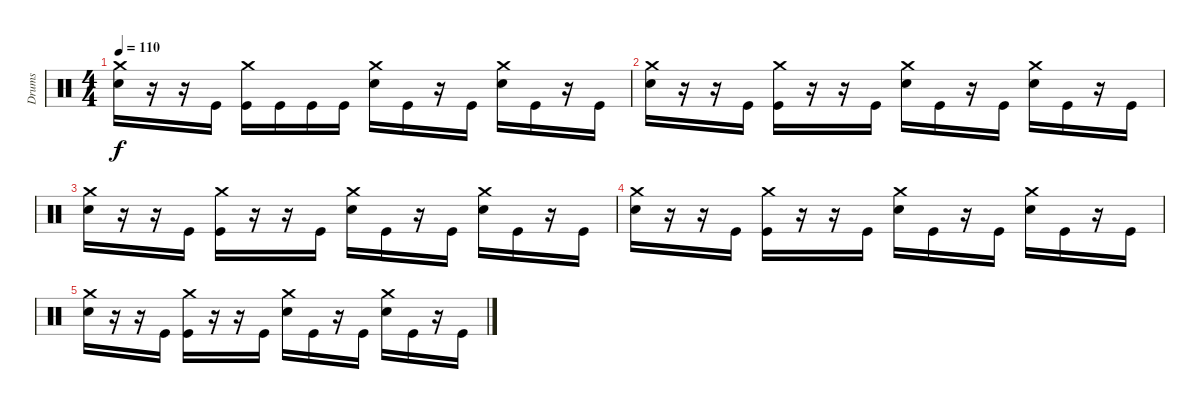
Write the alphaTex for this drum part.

\track ("Drums" "Drums") {instrument percussion}
\staff {score}
\articulation defaults
\ts (4 4)
\tempo 110
\clef neutral
\ks c
("Crash medium (hit)" "Electric Snare (hit)").16{dy f} r.16 r.16 "Kick (hit)".16 ("Crash medium (hit)" "Kick (hit)").16 "Kick (hit)".16 "Kick (hit)".16 "Kick (hit)".16 ("Crash medium (hit)" "Electric Snare (hit)").16 "Kick (hit)".16 r.16 "Kick (hit)".16 ("Crash medium (hit)" "Electric Snare (hit)").16 "Kick (hit)".16 r.16 "Kick (hit)".16 |
("Crash medium (hit)" "Electric Snare (hit)").16 r.16 r.16 "Kick (hit)".16 ("Crash medium (hit)" "Kick (hit)").16 r.16 r.16 "Kick (hit)".16 ("Crash medium (hit)" "Electric Snare (hit)").16 "Kick (hit)".16 r.16 "Kick (hit)".16 ("Crash medium (hit)" "Electric Snare (hit)").16 "Kick (hit)".16 r.16 "Kick (hit)".16 |
("Crash medium (hit)" "Electric Snare (hit)").16{volume 0} r.16 r.16 "Kick (hit)".16 ("Crash medium (hit)" "Kick (hit)").16 r.16 r.16 "Kick (hit)".16 ("Crash medium (hit)" "Electric Snare (hit)").16 "Kick (hit)".16 r.16 "Kick (hit)".16 ("Crash medium (hit)" "Electric Snare (hit)").16 "Kick (hit)".16 r.16 "Kick (hit)".16 |
("Crash medium (hit)" "Electric Snare (hit)").16 r.16 r.16 "Kick (hit)".16 ("Crash medium (hit)" "Kick (hit)").16 r.16 r.16 "Kick (hit)".16 ("Crash medium (hit)" "Electric Snare (hit)").16 "Kick (hit)".16 r.16 "Kick (hit)".16 ("Crash medium (hit)" "Electric Snare (hit)").16 "Kick (hit)".16 r.16 "Kick (hit)".16 |
("Crash medium (hit)" "Electric Snare (hit)").16 r.16 r.16 "Kick (hit)".16 ("Crash medium (hit)" "Kick (hit)").16 r.16 r.16 "Kick (hit)".16 ("Crash medium (hit)" "Electric Snare (hit)").16 "Kick (hit)".16 r.16 "Kick (hit)".16 ("Crash medium (hit)" "Electric Snare (hit)").16 "Kick (hit)".16 r.16 "Kick (hit)".16
